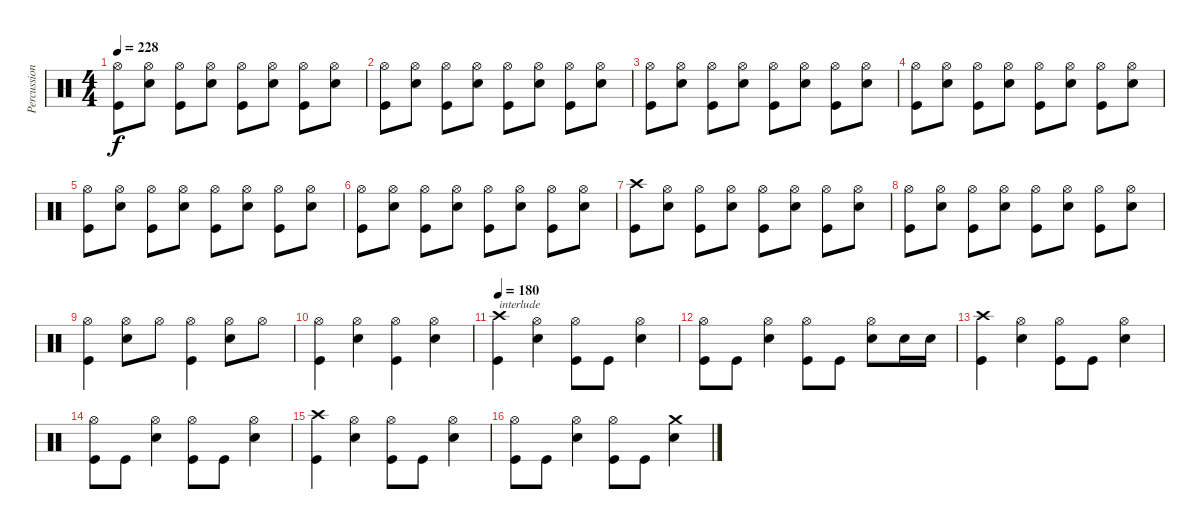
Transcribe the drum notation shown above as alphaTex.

\track ("Percussions" "Percussion") {instrument percussion}
\staff {score}
\articulation defaults
\ts (4 4)
\tempo 228
\clef neutral
\ks c
("Kick (hit)" "Hi-Hat (open)").8{dy f} ("Electric Snare (hit)" "Hi-Hat (open)").8 ("Kick (hit)" "Hi-Hat (open)").8 ("Electric Snare (hit)" "Hi-Hat (open)").8 ("Kick (hit)" "Hi-Hat (open)").8 ("Electric Snare (hit)" "Hi-Hat (open)").8 ("Kick (hit)" "Hi-Hat (open)").8 ("Electric Snare (hit)" "Hi-Hat (open)").8 |
("Kick (hit)" "Hi-Hat (open)").8 ("Electric Snare (hit)" "Hi-Hat (open)").8 ("Kick (hit)" "Hi-Hat (open)").8 ("Electric Snare (hit)" "Hi-Hat (open)").8 ("Kick (hit)" "Hi-Hat (open)").8 ("Electric Snare (hit)" "Hi-Hat (open)").8 ("Kick (hit)" "Hi-Hat (open)").8 ("Electric Snare (hit)" "Hi-Hat (open)").8 |
("Kick (hit)" "Hi-Hat (open)").8 ("Electric Snare (hit)" "Hi-Hat (open)").8 ("Kick (hit)" "Hi-Hat (open)").8 ("Electric Snare (hit)" "Hi-Hat (open)").8 ("Kick (hit)" "Hi-Hat (open)").8 ("Electric Snare (hit)" "Hi-Hat (open)").8 ("Kick (hit)" "Hi-Hat (open)").8 ("Electric Snare (hit)" "Hi-Hat (open)").8 |
("Kick (hit)" "Hi-Hat (open)").8 ("Electric Snare (hit)" "Hi-Hat (open)").8 ("Kick (hit)" "Hi-Hat (open)").8 ("Electric Snare (hit)" "Hi-Hat (open)").8 ("Kick (hit)" "Hi-Hat (open)").8 ("Electric Snare (hit)" "Hi-Hat (open)").8 ("Kick (hit)" "Hi-Hat (open)").8 ("Electric Snare (hit)" "Hi-Hat (open)").8 |
("Kick (hit)" "Hi-Hat (open)").8 ("Electric Snare (hit)" "Hi-Hat (open)").8 ("Kick (hit)" "Hi-Hat (open)").8 ("Electric Snare (hit)" "Hi-Hat (open)").8 ("Kick (hit)" "Hi-Hat (open)").8 ("Electric Snare (hit)" "Hi-Hat (open)").8 ("Kick (hit)" "Hi-Hat (open)").8 ("Electric Snare (hit)" "Hi-Hat (open)").8 |
("Kick (hit)" "Hi-Hat (open)").8 ("Electric Snare (hit)" "Hi-Hat (open)").8 ("Kick (hit)" "Hi-Hat (open)").8 ("Electric Snare (hit)" "Hi-Hat (open)").8 ("Kick (hit)" "Hi-Hat (open)").8 ("Electric Snare (hit)" "Hi-Hat (open)").8 ("Kick (hit)" "Hi-Hat (open)").8 ("Electric Snare (hit)" "Hi-Hat (open)").8 |
("Kick (hit)" "Crash high (hit)").8 ("Electric Snare (hit)" "Hi-Hat (open)").8 ("Kick (hit)" "Hi-Hat (open)").8 ("Electric Snare (hit)" "Hi-Hat (open)").8 ("Kick (hit)" "Hi-Hat (open)").8 ("Electric Snare (hit)" "Hi-Hat (open)").8 ("Kick (hit)" "Hi-Hat (open)").8 ("Electric Snare (hit)" "Hi-Hat (open)").8 |
("Kick (hit)" "Hi-Hat (open)").8 ("Electric Snare (hit)" "Hi-Hat (open)").8 ("Kick (hit)" "Hi-Hat (open)").8 ("Electric Snare (hit)" "Hi-Hat (open)").8 ("Kick (hit)" "Hi-Hat (open)").8 ("Electric Snare (hit)" "Hi-Hat (open)").8 ("Kick (hit)" "Hi-Hat (open)").8 ("Electric Snare (hit)" "Hi-Hat (open)").8 |
("Kick (hit)" "Hi-Hat (open)").4 ("Electric Snare (hit)" "Hi-Hat (open)").8 "Hi-Hat (open)".8 ("Kick (hit)" "Hi-Hat (open)").4 ("Electric Snare (hit)" "Hi-Hat (open)").8 "Hi-Hat (open)".8 |
("Kick (hit)" "Hi-Hat (open)").4 ("Electric Snare (hit)" "Hi-Hat (open)").4 ("Kick (hit)" "Hi-Hat (open)").4 ("Electric Snare (hit)" "Hi-Hat (open)").4 |
\tempo 180
("Kick (hit)" "Crash high (hit)").4{txt "interlude"} ("Electric Snare (hit)" "Hi-Hat (open)").4 ("Kick (hit)" "Hi-Hat (open)").8 "Kick (hit)".8 ("Electric Snare (hit)" "Hi-Hat (open)").4 |
("Kick (hit)" "Hi-Hat (open)").8 "Kick (hit)".8 ("Electric Snare (hit)" "Hi-Hat (open)").4 ("Kick (hit)" "Hi-Hat (open)").8 "Kick (hit)".8 ("Electric Snare (hit)" "Hi-Hat (open)").8 "Electric Snare (hit)".16 "Electric Snare (hit)".16 |
("Kick (hit)" "Crash high (hit)").4 ("Electric Snare (hit)" "Hi-Hat (open)").4 ("Kick (hit)" "Hi-Hat (open)").8 "Kick (hit)".8 ("Electric Snare (hit)" "Hi-Hat (open)").4 |
("Kick (hit)" "Hi-Hat (open)").8 "Kick (hit)".8 ("Electric Snare (hit)" "Hi-Hat (open)").4 ("Kick (hit)" "Hi-Hat (open)").8 "Kick (hit)".8 ("Electric Snare (hit)" "Hi-Hat (open)").4 |
("Kick (hit)" "Crash high (hit)").4 ("Electric Snare (hit)" "Hi-Hat (open)").4 ("Kick (hit)" "Hi-Hat (open)").8 "Kick (hit)".8 ("Electric Snare (hit)" "Hi-Hat (open)").4 |
("Kick (hit)" "Hi-Hat (open)").8 "Kick (hit)".8 ("Electric Snare (hit)" "Hi-Hat (open)").4 ("Kick (hit)" "Hi-Hat (open)").8 "Kick (hit)".8 ("Electric Snare (hit)" "Crash medium (hit)").4
